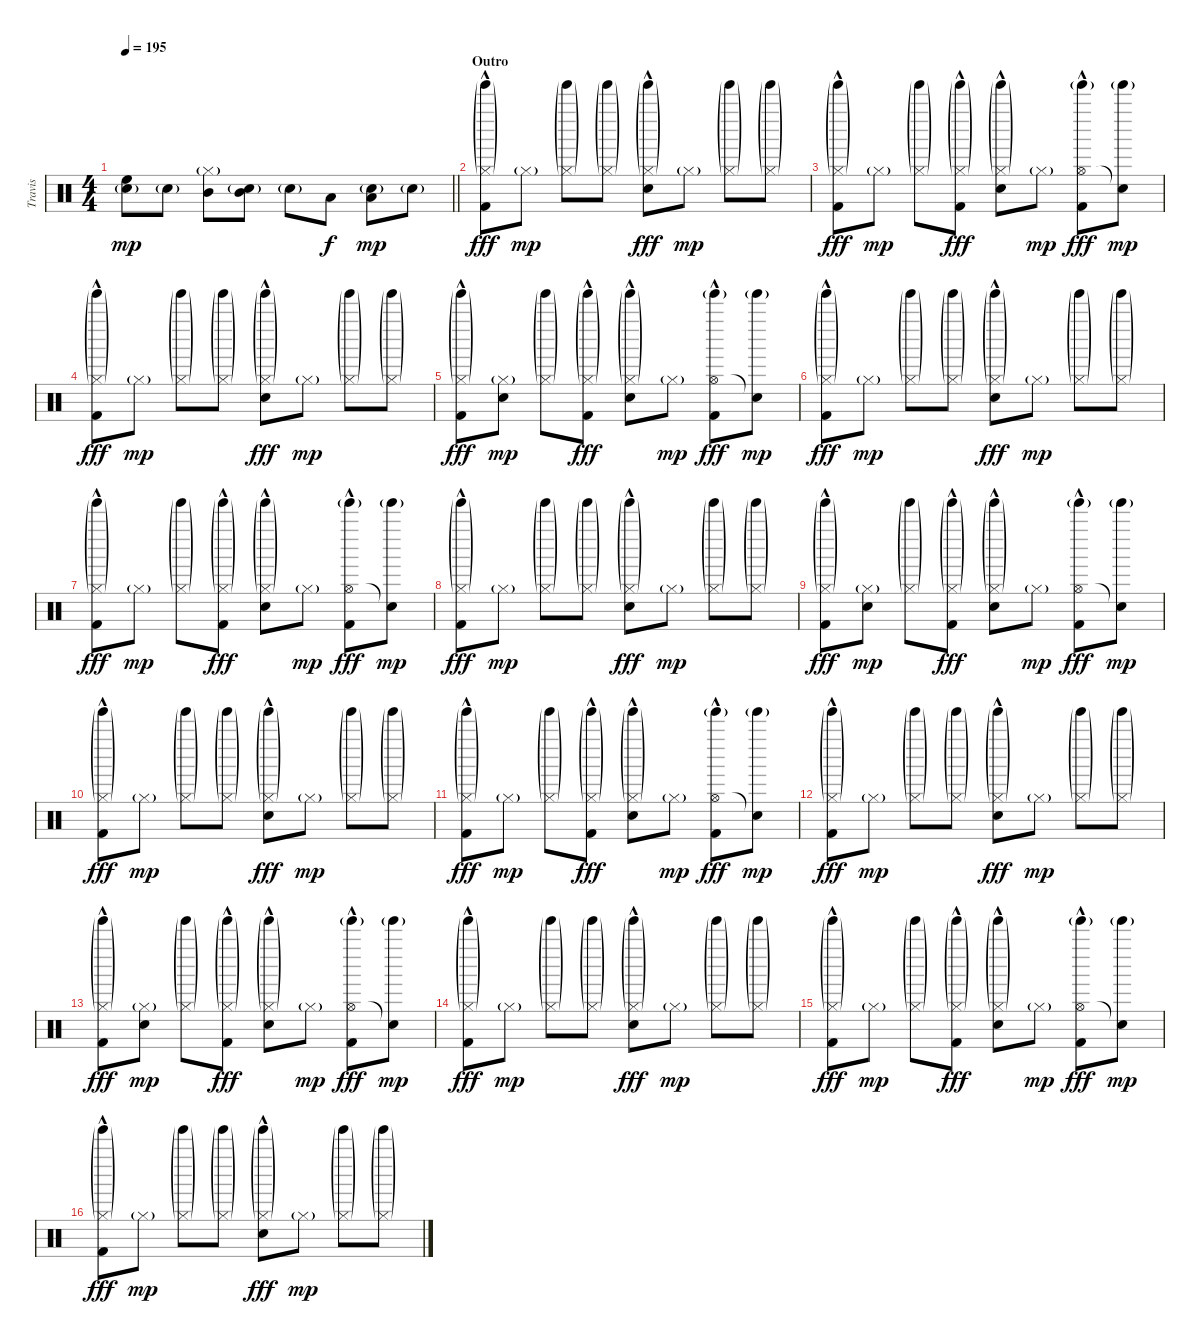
\track ("Travis" "Travis") {instrument percussion}
\staff {score}
\articulation defaults
\ts (4 4)
\tempo 195
\clef neutral
\barLineRight lightlight
\ks c
("High Floor Tom (hit)" "Electric Snare (hit)"{g}).8{dy mp} "Electric Snare (hit)"{g}.8 ("Mid Tom (hit)" "Hi-Hat (closed)"{g}).8 ("Mid Tom (hit)" "Electric Snare (hit)"{g}).8 "Electric Snare (hit)"{g}.8 "Low Tom (hit)".8{dy f} ("Low Tom (hit)" "Electric Snare (hit)"{g}).8{dy mp} "Electric Snare (hit)"{g}.8 |
\section ("" "Outro")
("Tinkle Bell (hit)"{g} "Hi-Hat (closed)"{g} "Kick (hit) 2"{hac}).8{dy fff} "Hi-Hat (closed)"{g}.8{dy mp} ("Tinkle Bell (hit)"{g} "Hi-Hat (closed)"{g}).8 ("Tinkle Bell (hit)"{g} "Hi-Hat (closed)"{g}).8 ("Tinkle Bell (hit)"{g} "Hi-Hat (closed)"{g} "Electric Snare (hit)"{hac}).8{dy fff} "Hi-Hat (closed)"{g}.8{dy mp} ("Tinkle Bell (hit)"{g} "Hi-Hat (closed)"{g}).8 ("Tinkle Bell (hit)"{g} "Hi-Hat (closed)"{g}).8 |
("Tinkle Bell (hit)"{g} "Hi-Hat (closed)"{g} "Kick (hit) 2"{hac}).8{dy fff} "Hi-Hat (closed)"{g}.8{dy mp} ("Tinkle Bell (hit)"{g} "Hi-Hat (closed)"{g}).8 ("Tinkle Bell (hit)"{g} "Hi-Hat (closed)"{g} "Kick (hit) 2"{hac}).8{dy fff} ("Tinkle Bell (hit)"{g} "Hi-Hat (closed)"{g} "Electric Snare (hit)"{hac}).8 "Hi-Hat (closed)"{g}.8{dy mp} ("Tinkle Bell (hit)"{g} "Hi-Hat (open)" "Kick (hit) 2"{hac}).8{dy fff} ("Tinkle Bell (hit)"{g} "Snare (hit)"{t}).8{dy mp} |
("Tinkle Bell (hit)"{g} "Hi-Hat (closed)"{g} "Kick (hit) 2"{hac}).8{dy fff} "Hi-Hat (closed)"{g}.8{dy mp} ("Tinkle Bell (hit)"{g} "Hi-Hat (closed)"{g}).8 ("Tinkle Bell (hit)"{g} "Hi-Hat (closed)"{g}).8 ("Tinkle Bell (hit)"{g} "Hi-Hat (closed)"{g} "Electric Snare (hit)"{hac}).8{dy fff} "Hi-Hat (closed)"{g}.8{dy mp} ("Tinkle Bell (hit)"{g} "Hi-Hat (closed)"{g}).8 ("Tinkle Bell (hit)"{g} "Hi-Hat (closed)"{g}).8 |
("Tinkle Bell (hit)"{g} "Hi-Hat (closed)"{g} "Kick (hit) 2"{hac}).8{dy fff} ("Hi-Hat (closed)"{g} "Electric Snare (hit)").8{dy mp} ("Tinkle Bell (hit)"{g} "Hi-Hat (closed)"{g}).8 ("Tinkle Bell (hit)"{g} "Hi-Hat (closed)"{g} "Kick (hit) 2"{hac}).8{dy fff} ("Tinkle Bell (hit)"{g} "Hi-Hat (closed)"{g} "Electric Snare (hit)"{hac}).8 "Hi-Hat (closed)"{g}.8{dy mp} ("Tinkle Bell (hit)"{g} "Hi-Hat (open)" "Kick (hit) 2"{hac}).8{dy fff} ("Tinkle Bell (hit)"{g} "Snare (hit)"{t}).8{dy mp} |
("Tinkle Bell (hit)"{g} "Hi-Hat (closed)"{g} "Kick (hit) 2"{hac}).8{dy fff} "Hi-Hat (closed)"{g}.8{dy mp} ("Tinkle Bell (hit)"{g} "Hi-Hat (closed)"{g}).8 ("Tinkle Bell (hit)"{g} "Hi-Hat (closed)"{g}).8 ("Tinkle Bell (hit)"{g} "Hi-Hat (closed)"{g} "Electric Snare (hit)"{hac}).8{dy fff} "Hi-Hat (closed)"{g}.8{dy mp} ("Tinkle Bell (hit)"{g} "Hi-Hat (closed)"{g}).8 ("Tinkle Bell (hit)"{g} "Hi-Hat (closed)"{g}).8 |
("Tinkle Bell (hit)"{g} "Hi-Hat (closed)"{g} "Kick (hit) 2"{hac}).8{dy fff} "Hi-Hat (closed)"{g}.8{dy mp} ("Tinkle Bell (hit)"{g} "Hi-Hat (closed)"{g}).8 ("Tinkle Bell (hit)"{g} "Hi-Hat (closed)"{g} "Kick (hit) 2"{hac}).8{dy fff} ("Tinkle Bell (hit)"{g} "Hi-Hat (closed)"{g} "Electric Snare (hit)"{hac}).8 "Hi-Hat (closed)"{g}.8{dy mp} ("Tinkle Bell (hit)"{g} "Hi-Hat (open)" "Kick (hit) 2"{hac}).8{dy fff} ("Tinkle Bell (hit)"{g} "Snare (hit)"{t}).8{dy mp} |
("Tinkle Bell (hit)"{g} "Hi-Hat (closed)"{g} "Kick (hit) 2"{hac}).8{dy fff} "Hi-Hat (closed)"{g}.8{dy mp} ("Tinkle Bell (hit)"{g} "Hi-Hat (closed)"{g}).8 ("Tinkle Bell (hit)"{g} "Hi-Hat (closed)"{g}).8 ("Tinkle Bell (hit)"{g} "Hi-Hat (closed)"{g} "Electric Snare (hit)"{hac}).8{dy fff} "Hi-Hat (closed)"{g}.8{dy mp} ("Tinkle Bell (hit)"{g} "Hi-Hat (closed)"{g}).8 ("Tinkle Bell (hit)"{g} "Hi-Hat (closed)"{g}).8 |
("Tinkle Bell (hit)"{g} "Hi-Hat (closed)"{g} "Kick (hit) 2"{hac}).8{dy fff} ("Hi-Hat (closed)"{g} "Electric Snare (hit)").8{dy mp} ("Tinkle Bell (hit)"{g} "Hi-Hat (closed)"{g}).8 ("Tinkle Bell (hit)"{g} "Hi-Hat (closed)"{g} "Kick (hit) 2"{hac}).8{dy fff} ("Tinkle Bell (hit)"{g} "Hi-Hat (closed)"{g} "Electric Snare (hit)"{hac}).8 "Hi-Hat (closed)"{g}.8{dy mp} ("Tinkle Bell (hit)"{g} "Hi-Hat (open)" "Kick (hit) 2"{hac}).8{dy fff} ("Tinkle Bell (hit)"{g} "Snare (hit)"{t}).8{dy mp} |
("Tinkle Bell (hit)"{g} "Hi-Hat (closed)"{g} "Kick (hit) 2"{hac}).8{dy fff} "Hi-Hat (closed)"{g}.8{dy mp} ("Tinkle Bell (hit)"{g} "Hi-Hat (closed)"{g}).8 ("Tinkle Bell (hit)"{g} "Hi-Hat (closed)"{g}).8 ("Tinkle Bell (hit)"{g} "Hi-Hat (closed)"{g} "Electric Snare (hit)"{hac}).8{dy fff} "Hi-Hat (closed)"{g}.8{dy mp} ("Tinkle Bell (hit)"{g} "Hi-Hat (closed)"{g}).8 ("Tinkle Bell (hit)"{g} "Hi-Hat (closed)"{g}).8 |
("Tinkle Bell (hit)"{g} "Hi-Hat (closed)"{g} "Kick (hit) 2"{hac}).8{dy fff} "Hi-Hat (closed)"{g}.8{dy mp} ("Tinkle Bell (hit)"{g} "Hi-Hat (closed)"{g}).8 ("Tinkle Bell (hit)"{g} "Hi-Hat (closed)"{g} "Kick (hit) 2"{hac}).8{dy fff} ("Tinkle Bell (hit)"{g} "Hi-Hat (closed)"{g} "Electric Snare (hit)"{hac}).8 "Hi-Hat (closed)"{g}.8{dy mp} ("Tinkle Bell (hit)"{g} "Hi-Hat (open)" "Kick (hit) 2"{hac}).8{dy fff} ("Tinkle Bell (hit)"{g} "Snare (hit)"{t}).8{dy mp} |
("Tinkle Bell (hit)"{g} "Hi-Hat (closed)"{g} "Kick (hit) 2"{hac}).8{dy fff} "Hi-Hat (closed)"{g}.8{dy mp} ("Tinkle Bell (hit)"{g} "Hi-Hat (closed)"{g}).8 ("Tinkle Bell (hit)"{g} "Hi-Hat (closed)"{g}).8 ("Tinkle Bell (hit)"{g} "Hi-Hat (closed)"{g} "Electric Snare (hit)"{hac}).8{dy fff} "Hi-Hat (closed)"{g}.8{dy mp} ("Tinkle Bell (hit)"{g} "Hi-Hat (closed)"{g}).8 ("Tinkle Bell (hit)"{g} "Hi-Hat (closed)"{g}).8 |
("Tinkle Bell (hit)"{g} "Hi-Hat (closed)"{g} "Kick (hit) 2"{hac}).8{dy fff} ("Hi-Hat (closed)"{g} "Electric Snare (hit)").8{dy mp} ("Tinkle Bell (hit)"{g} "Hi-Hat (closed)"{g}).8 ("Tinkle Bell (hit)"{g} "Hi-Hat (closed)"{g} "Kick (hit) 2"{hac}).8{dy fff} ("Tinkle Bell (hit)"{g} "Hi-Hat (closed)"{g} "Electric Snare (hit)"{hac}).8 "Hi-Hat (closed)"{g}.8{dy mp} ("Tinkle Bell (hit)"{g} "Hi-Hat (open)" "Kick (hit) 2"{hac}).8{dy fff} ("Tinkle Bell (hit)"{g} "Snare (hit)"{t}).8{dy mp} |
("Tinkle Bell (hit)"{g} "Hi-Hat (closed)"{g} "Kick (hit) 2"{hac}).8{dy fff} "Hi-Hat (closed)"{g}.8{dy mp} ("Tinkle Bell (hit)"{g} "Hi-Hat (closed)"{g}).8 ("Tinkle Bell (hit)"{g} "Hi-Hat (closed)"{g}).8 ("Tinkle Bell (hit)"{g} "Hi-Hat (closed)"{g} "Electric Snare (hit)"{hac}).8{dy fff} "Hi-Hat (closed)"{g}.8{dy mp} ("Tinkle Bell (hit)"{g} "Hi-Hat (closed)"{g}).8 ("Tinkle Bell (hit)"{g} "Hi-Hat (closed)"{g}).8 |
("Tinkle Bell (hit)"{g} "Hi-Hat (closed)"{g} "Kick (hit) 2"{hac}).8{dy fff} "Hi-Hat (closed)"{g}.8{dy mp} ("Tinkle Bell (hit)"{g} "Hi-Hat (closed)"{g}).8 ("Tinkle Bell (hit)"{g} "Hi-Hat (closed)"{g} "Kick (hit) 2"{hac}).8{dy fff} ("Tinkle Bell (hit)"{g} "Hi-Hat (closed)"{g} "Electric Snare (hit)"{hac}).8 "Hi-Hat (closed)"{g}.8{dy mp} ("Tinkle Bell (hit)"{g} "Hi-Hat (open)" "Kick (hit) 2"{hac}).8{dy fff} ("Tinkle Bell (hit)"{g} "Snare (hit)"{t}).8{dy mp} |
("Tinkle Bell (hit)"{g} "Hi-Hat (closed)"{g} "Kick (hit) 2"{hac}).8{dy fff} "Hi-Hat (closed)"{g}.8{dy mp} ("Tinkle Bell (hit)"{g} "Hi-Hat (closed)"{g}).8 ("Tinkle Bell (hit)"{g} "Hi-Hat (closed)"{g}).8 ("Tinkle Bell (hit)"{g} "Hi-Hat (closed)"{g} "Electric Snare (hit)"{hac}).8{dy fff} "Hi-Hat (closed)"{g}.8{dy mp} ("Tinkle Bell (hit)"{g} "Hi-Hat (closed)"{g}).8 ("Tinkle Bell (hit)"{g} "Hi-Hat (closed)"{g}).8
